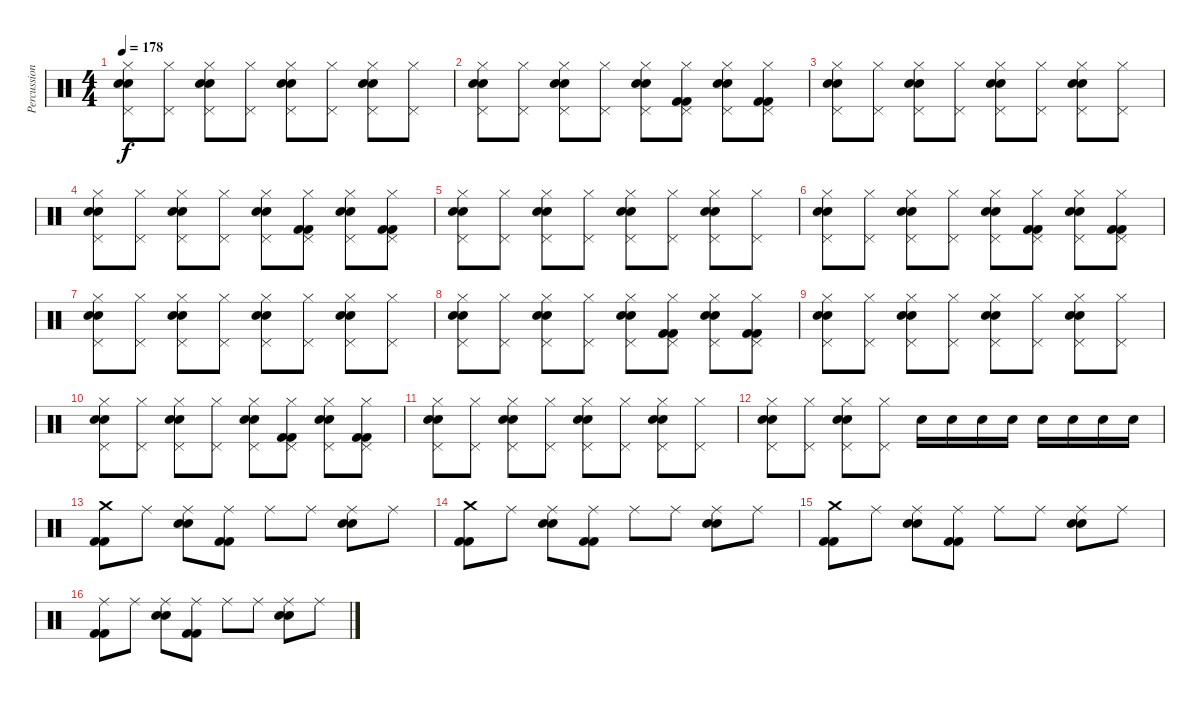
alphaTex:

\track ("Percussion" "Percussion") {instrument percussion}
\staff {score}
\articulation defaults
\ts (4 4)
\tempo 178
\clef neutral
\ks c
("Hi-Hat (closed)" "Pedal Hi-Hat (hit)" "Snare (hit) 2" "Snare (hit) 2").8{dy f} ("Hi-Hat (closed)" "Pedal Hi-Hat (hit)").8 ("Hi-Hat (closed)" "Pedal Hi-Hat (hit)" "Snare (hit) 2" "Snare (hit) 2").8 ("Hi-Hat (closed)" "Pedal Hi-Hat (hit)").8 ("Hi-Hat (closed)" "Pedal Hi-Hat (hit)" "Snare (hit) 2" "Snare (hit) 2").8 ("Hi-Hat (closed)" "Pedal Hi-Hat (hit)").8 ("Hi-Hat (closed)" "Pedal Hi-Hat (hit)" "Snare (hit) 2" "Snare (hit) 2").8 ("Hi-Hat (closed)" "Pedal Hi-Hat (hit)").8 |
("Hi-Hat (closed)" "Pedal Hi-Hat (hit)" "Snare (hit) 2" "Snare (hit) 2").8 ("Hi-Hat (closed)" "Pedal Hi-Hat (hit)").8 ("Hi-Hat (closed)" "Pedal Hi-Hat (hit)" "Snare (hit) 2" "Snare (hit) 2").8 ("Hi-Hat (closed)" "Pedal Hi-Hat (hit)").8 ("Hi-Hat (closed)" "Pedal Hi-Hat (hit)" "Snare (hit) 2" "Snare (hit) 2").8 ("Hi-Hat (closed)" "Pedal Hi-Hat (hit)" "Kick (hit) 2" "Kick (hit) 2").8 ("Hi-Hat (closed)" "Pedal Hi-Hat (hit)" "Snare (hit) 2" "Snare (hit) 2").8 ("Hi-Hat (closed)" "Pedal Hi-Hat (hit)" "Kick (hit) 2" "Kick (hit) 2").8 |
("Hi-Hat (closed)" "Pedal Hi-Hat (hit)" "Snare (hit) 2" "Snare (hit) 2").8 ("Hi-Hat (closed)" "Pedal Hi-Hat (hit)").8 ("Hi-Hat (closed)" "Pedal Hi-Hat (hit)" "Snare (hit) 2" "Snare (hit) 2").8 ("Hi-Hat (closed)" "Pedal Hi-Hat (hit)").8 ("Hi-Hat (closed)" "Pedal Hi-Hat (hit)" "Snare (hit) 2" "Snare (hit) 2").8 ("Hi-Hat (closed)" "Pedal Hi-Hat (hit)").8 ("Hi-Hat (closed)" "Pedal Hi-Hat (hit)" "Snare (hit) 2" "Snare (hit) 2").8 ("Hi-Hat (closed)" "Pedal Hi-Hat (hit)").8 |
("Hi-Hat (closed)" "Pedal Hi-Hat (hit)" "Snare (hit) 2" "Snare (hit) 2").8 ("Hi-Hat (closed)" "Pedal Hi-Hat (hit)").8 ("Hi-Hat (closed)" "Pedal Hi-Hat (hit)" "Snare (hit) 2" "Snare (hit) 2").8 ("Hi-Hat (closed)" "Pedal Hi-Hat (hit)").8 ("Hi-Hat (closed)" "Pedal Hi-Hat (hit)" "Snare (hit) 2" "Snare (hit) 2").8 ("Hi-Hat (closed)" "Pedal Hi-Hat (hit)" "Kick (hit) 2" "Kick (hit) 2").8 ("Hi-Hat (closed)" "Pedal Hi-Hat (hit)" "Snare (hit) 2" "Snare (hit) 2").8 ("Hi-Hat (closed)" "Pedal Hi-Hat (hit)" "Kick (hit) 2" "Kick (hit) 2").8 |
("Hi-Hat (closed)" "Pedal Hi-Hat (hit)" "Snare (hit) 2" "Snare (hit) 2").8 ("Hi-Hat (closed)" "Pedal Hi-Hat (hit)").8 ("Hi-Hat (closed)" "Pedal Hi-Hat (hit)" "Snare (hit) 2" "Snare (hit) 2").8 ("Hi-Hat (closed)" "Pedal Hi-Hat (hit)").8 ("Hi-Hat (closed)" "Pedal Hi-Hat (hit)" "Snare (hit) 2" "Snare (hit) 2").8 ("Hi-Hat (closed)" "Pedal Hi-Hat (hit)").8 ("Hi-Hat (closed)" "Pedal Hi-Hat (hit)" "Snare (hit) 2" "Snare (hit) 2").8 ("Hi-Hat (closed)" "Pedal Hi-Hat (hit)").8 |
("Hi-Hat (closed)" "Pedal Hi-Hat (hit)" "Snare (hit) 2" "Snare (hit) 2").8 ("Hi-Hat (closed)" "Pedal Hi-Hat (hit)").8 ("Hi-Hat (closed)" "Pedal Hi-Hat (hit)" "Snare (hit) 2" "Snare (hit) 2").8 ("Hi-Hat (closed)" "Pedal Hi-Hat (hit)").8 ("Hi-Hat (closed)" "Pedal Hi-Hat (hit)" "Snare (hit) 2" "Snare (hit) 2").8 ("Hi-Hat (closed)" "Pedal Hi-Hat (hit)" "Kick (hit) 2" "Kick (hit) 2").8 ("Hi-Hat (closed)" "Pedal Hi-Hat (hit)" "Snare (hit) 2" "Snare (hit) 2").8 ("Hi-Hat (closed)" "Pedal Hi-Hat (hit)" "Kick (hit) 2" "Kick (hit) 2").8 |
("Hi-Hat (closed)" "Pedal Hi-Hat (hit)" "Snare (hit) 2" "Snare (hit) 2").8 ("Hi-Hat (closed)" "Pedal Hi-Hat (hit)").8 ("Hi-Hat (closed)" "Pedal Hi-Hat (hit)" "Snare (hit) 2" "Snare (hit) 2").8 ("Hi-Hat (closed)" "Pedal Hi-Hat (hit)").8 ("Hi-Hat (closed)" "Pedal Hi-Hat (hit)" "Snare (hit) 2" "Snare (hit) 2").8 ("Hi-Hat (closed)" "Pedal Hi-Hat (hit)").8 ("Hi-Hat (closed)" "Pedal Hi-Hat (hit)" "Snare (hit) 2" "Snare (hit) 2").8 ("Hi-Hat (closed)" "Pedal Hi-Hat (hit)").8 |
("Hi-Hat (closed)" "Pedal Hi-Hat (hit)" "Snare (hit) 2" "Snare (hit) 2").8 ("Hi-Hat (closed)" "Pedal Hi-Hat (hit)").8 ("Hi-Hat (closed)" "Pedal Hi-Hat (hit)" "Snare (hit) 2" "Snare (hit) 2").8 ("Hi-Hat (closed)" "Pedal Hi-Hat (hit)").8 ("Hi-Hat (closed)" "Pedal Hi-Hat (hit)" "Snare (hit) 2" "Snare (hit) 2").8 ("Hi-Hat (closed)" "Pedal Hi-Hat (hit)" "Kick (hit) 2" "Kick (hit) 2").8 ("Hi-Hat (closed)" "Pedal Hi-Hat (hit)" "Snare (hit) 2" "Snare (hit) 2").8 ("Hi-Hat (closed)" "Pedal Hi-Hat (hit)" "Kick (hit) 2" "Kick (hit) 2").8 |
("Hi-Hat (closed)" "Pedal Hi-Hat (hit)" "Snare (hit) 2" "Snare (hit) 2").8 ("Hi-Hat (closed)" "Pedal Hi-Hat (hit)").8 ("Hi-Hat (closed)" "Pedal Hi-Hat (hit)" "Snare (hit) 2" "Snare (hit) 2").8 ("Hi-Hat (closed)" "Pedal Hi-Hat (hit)").8 ("Hi-Hat (closed)" "Pedal Hi-Hat (hit)" "Snare (hit) 2" "Snare (hit) 2").8 ("Hi-Hat (closed)" "Pedal Hi-Hat (hit)").8 ("Hi-Hat (closed)" "Pedal Hi-Hat (hit)" "Snare (hit) 2" "Snare (hit) 2").8 ("Hi-Hat (closed)" "Pedal Hi-Hat (hit)").8 |
("Hi-Hat (closed)" "Pedal Hi-Hat (hit)" "Snare (hit) 2" "Snare (hit) 2").8 ("Hi-Hat (closed)" "Pedal Hi-Hat (hit)").8 ("Hi-Hat (closed)" "Pedal Hi-Hat (hit)" "Snare (hit) 2" "Snare (hit) 2").8 ("Hi-Hat (closed)" "Pedal Hi-Hat (hit)").8 ("Hi-Hat (closed)" "Pedal Hi-Hat (hit)" "Snare (hit) 2" "Snare (hit) 2").8 ("Hi-Hat (closed)" "Pedal Hi-Hat (hit)" "Kick (hit) 2" "Kick (hit) 2").8 ("Hi-Hat (closed)" "Pedal Hi-Hat (hit)" "Snare (hit) 2" "Snare (hit) 2").8 ("Hi-Hat (closed)" "Pedal Hi-Hat (hit)" "Kick (hit) 2" "Kick (hit) 2").8 |
("Hi-Hat (closed)" "Pedal Hi-Hat (hit)" "Snare (hit) 2" "Snare (hit) 2").8 ("Hi-Hat (closed)" "Pedal Hi-Hat (hit)").8 ("Hi-Hat (closed)" "Pedal Hi-Hat (hit)" "Snare (hit) 2" "Snare (hit) 2").8 ("Hi-Hat (closed)" "Pedal Hi-Hat (hit)").8 ("Hi-Hat (closed)" "Pedal Hi-Hat (hit)" "Snare (hit) 2" "Snare (hit) 2").8 ("Hi-Hat (closed)" "Pedal Hi-Hat (hit)").8 ("Hi-Hat (closed)" "Pedal Hi-Hat (hit)" "Snare (hit) 2" "Snare (hit) 2").8 ("Hi-Hat (closed)" "Pedal Hi-Hat (hit)").8 |
("Hi-Hat (closed)" "Pedal Hi-Hat (hit)" "Snare (hit) 2" "Snare (hit) 2").8 ("Hi-Hat (closed)" "Pedal Hi-Hat (hit)").8 ("Hi-Hat (closed)" "Pedal Hi-Hat (hit)" "Snare (hit) 2" "Snare (hit) 2").8 ("Hi-Hat (closed)" "Pedal Hi-Hat (hit)").8 "Snare (hit) 2".16 "Snare (hit) 2".16 "Snare (hit) 2".16 "Snare (hit) 2".16 "Snare (hit) 2".16 "Snare (hit) 2".16 "Snare (hit) 2".16 "Snare (hit) 2".16 |
("Crash medium (hit)" "Kick (hit) 2" "Kick (hit) 2").8 "Ride (middle)".8 ("Ride (middle)" "Snare (hit) 2" "Snare (hit) 2").8 ("Ride (middle)" "Kick (hit) 2" "Kick (hit) 2").8 "Ride (middle)".8 "Ride (middle)".8 ("Ride (middle)" "Snare (hit) 2" "Snare (hit) 2").8 "Ride (middle)".8 |
("Crash medium (hit)" "Kick (hit) 2" "Kick (hit) 2").8 "Ride (middle)".8 ("Ride (middle)" "Snare (hit) 2" "Snare (hit) 2").8 ("Ride (middle)" "Kick (hit) 2" "Kick (hit) 2").8 "Ride (middle)".8 "Ride (middle)".8 ("Ride (middle)" "Snare (hit) 2" "Snare (hit) 2").8 "Ride (middle)".8 |
("Crash medium (hit)" "Kick (hit) 2" "Kick (hit) 2").8 "Ride (middle)".8 ("Ride (middle)" "Snare (hit) 2" "Snare (hit) 2").8 ("Ride (middle)" "Kick (hit) 2" "Kick (hit) 2").8 "Ride (middle)".8 "Ride (middle)".8 ("Ride (middle)" "Snare (hit) 2" "Snare (hit) 2").8 "Ride (middle)".8 |
("Ride (middle)" "Kick (hit) 2" "Kick (hit) 2").8 "Ride (middle)".8 ("Ride (middle)" "Snare (hit) 2" "Snare (hit) 2").8 ("Ride (middle)" "Kick (hit) 2" "Kick (hit) 2").8 "Ride (middle)".8 "Ride (middle)".8 ("Ride (middle)" "Snare (hit) 2" "Snare (hit) 2").8 "Ride (middle)".8
